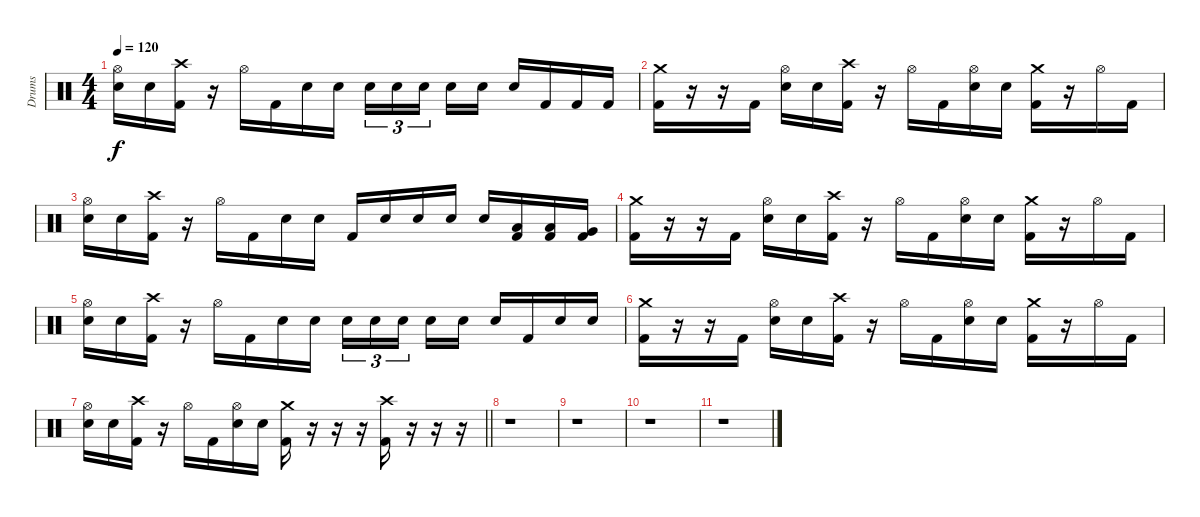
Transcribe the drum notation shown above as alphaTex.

\track ("Drums" "Drums") {instrument percussion}
\staff {score}
\articulation defaults
\ts (4 4)
\tempo 120
\clef neutral
\ks c
("Hi-Hat (open)" "Electric Snare (hit)").16{dy f} "Electric Snare (hit)".16 ("Crash high (hit)" "Kick (hit) 2").16 r.16 "Hi-Hat (open)".16 "Kick (hit) 2".16 "Electric Snare (hit)".16 "Electric Snare (hit)".16 "Electric Snare (hit)".16{tu (3 2)} "Electric Snare (hit)".16{tu (3 2)} "Electric Snare (hit)".16{tu (3 2)} "Electric Snare (hit)".16 "Electric Snare (hit)".16 "Electric Snare (hit)".16 "Kick (hit) 2".16 "Kick (hit) 2".16 "Kick (hit) 2".16 |
("Crash medium (hit)" "Kick (hit) 2").16 r.16 r.16 "Kick (hit) 2".16 ("Hi-Hat (open)" "Electric Snare (hit)").16 "Electric Snare (hit)".16 ("Crash high (hit)" "Kick (hit) 2").16 r.16 "Hi-Hat (open)".16 "Kick (hit) 2".16 ("Hi-Hat (open)" "Electric Snare (hit)").16 "Electric Snare (hit)".16 ("Crash medium (hit)" "Kick (hit) 2").16 r.16 "Hi-Hat (open)".16 "Kick (hit) 2".16 |
("Hi-Hat (open)" "Electric Snare (hit)").16 "Electric Snare (hit)".16 ("Crash high (hit)" "Kick (hit) 2").16 r.16 "Hi-Hat (open)".16 "Kick (hit) 2".16 "Electric Snare (hit)".16 "Electric Snare (hit)".16 "Kick (hit) 2".16 "Electric Snare (hit)".16 "Electric Snare (hit)".16 "Electric Snare (hit)".16 "Electric Snare (hit)".16 ("Low Tom (hit)" "Kick (hit) 2").16 ("Low Tom (hit)" "Kick (hit) 2").16 ("Very Low Tom (hit)" "Kick (hit) 2").16 |
("Crash medium (hit)" "Kick (hit) 2").16 r.16 r.16 "Kick (hit) 2".16 ("Hi-Hat (open)" "Electric Snare (hit)").16 "Electric Snare (hit)".16 ("Crash high (hit)" "Kick (hit) 2").16 r.16 "Hi-Hat (open)".16 "Kick (hit) 2".16 ("Hi-Hat (open)" "Electric Snare (hit)").16 "Electric Snare (hit)".16 ("Crash medium (hit)" "Kick (hit) 2").16 r.16 "Hi-Hat (open)".16 "Kick (hit) 2".16 |
("Hi-Hat (open)" "Electric Snare (hit)").16 "Electric Snare (hit)".16 ("Crash high (hit)" "Kick (hit) 2").16 r.16 "Hi-Hat (open)".16 "Kick (hit) 2".16 "Electric Snare (hit)".16 "Electric Snare (hit)".16 "Electric Snare (hit)".16{tu (3 2)} "Electric Snare (hit)".16{tu (3 2)} "Electric Snare (hit)".16{tu (3 2)} "Electric Snare (hit)".16 "Electric Snare (hit)".16 "Electric Snare (hit)".16 "Kick (hit) 2".16 "Electric Snare (hit)".16 "Electric Snare (hit)".16 |
("Crash medium (hit)" "Kick (hit) 2").16 r.16 r.16 "Kick (hit) 2".16 ("Hi-Hat (open)" "Electric Snare (hit)").16 "Electric Snare (hit)".16 ("Crash high (hit)" "Kick (hit) 2").16 r.16 "Hi-Hat (open)".16 "Kick (hit) 2".16 ("Hi-Hat (open)" "Electric Snare (hit)").16 "Electric Snare (hit)".16 ("Crash medium (hit)" "Kick (hit) 2").16 r.16 "Hi-Hat (open)".16 "Kick (hit) 2".16 |
\barLineRight lightlight
("Hi-Hat (open)" "Electric Snare (hit)").16 "Electric Snare (hit)".16 ("Crash high (hit)" "Kick (hit) 2").16 r.16 "Hi-Hat (open)".16 "Kick (hit) 2".16 ("Hi-Hat (open)" "Electric Snare (hit)").16 "Electric Snare (hit)".16 ("Crash medium (hit)" "Kick (hit) 2").16 r.16 r.16 r.16 ("Crash high (hit)" "Kick (hit) 2").16 r.16 r.16 r.16 |
\section ("" "")
r.1 |
r.1 |
r.1 |
r.1
